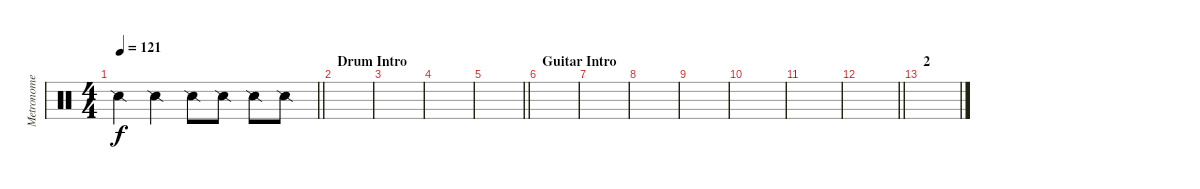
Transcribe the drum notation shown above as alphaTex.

\track ("Metronome" "Metronome") {instrument percussion}
\staff {score}
\articulation defaults
\ts (4 4)
\tempo 121
\clef neutral
\barLineRight lightlight
\ks c "Snare (side stick) 2".4{dy f} "Snare (side stick) 2".4 "Snare (side stick) 2".8 "Snare (side stick) 2".8 "Snare (side stick) 2".8 "Snare (side stick) 2".8
|
\section ("" "Drum Intro")
|
|
|
\barLineRight lightlight
|
\section ("" "Guitar Intro")
|
|
|
|
|
|
\barLineRight lightlight
|
\section ("" "2")
